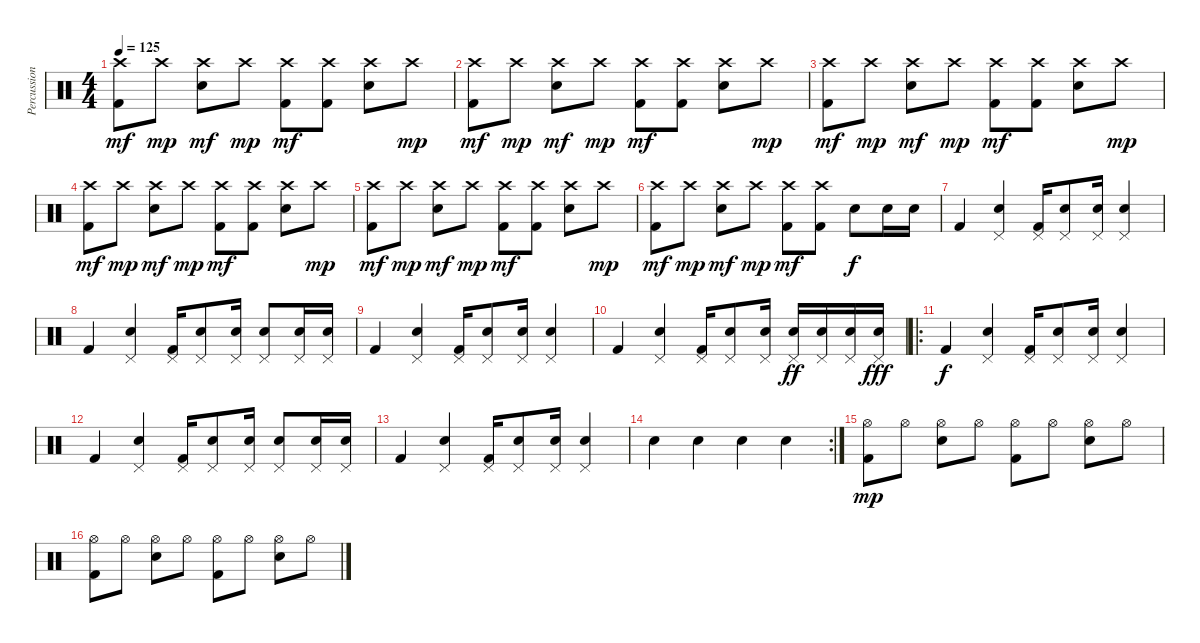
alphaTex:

\track ("Percussion" "Percussion") {instrument percussion}
\staff {score}
\articulation defaults
\ts (4 4)
\tempo 125
\clef neutral
\ks c
("Crash high (hit)" "Kick (hit) 2").8{dy mf} "Crash high (hit)".8{dy mp} ("Crash high (hit)" "Electric Snare (hit)").8{dy mf} "Crash high (hit)".8{dy mp} ("Crash high (hit)" "Kick (hit) 2").8{dy mf} ("Crash high (hit)" "Kick (hit) 2").8 ("Crash high (hit)" "Electric Snare (hit)").8 "Crash high (hit)".8{dy mp} |
("Crash high (hit)" "Kick (hit) 2").8{dy mf} "Crash high (hit)".8{dy mp} ("Crash high (hit)" "Electric Snare (hit)").8{dy mf} "Crash high (hit)".8{dy mp} ("Crash high (hit)" "Kick (hit) 2").8{dy mf} ("Crash high (hit)" "Kick (hit) 2").8 ("Crash high (hit)" "Electric Snare (hit)").8 "Crash high (hit)".8{dy mp} |
("Crash high (hit)" "Kick (hit) 2").8{dy mf} "Crash high (hit)".8{dy mp} ("Crash high (hit)" "Electric Snare (hit)").8{dy mf} "Crash high (hit)".8{dy mp} ("Crash high (hit)" "Kick (hit) 2").8{dy mf} ("Crash high (hit)" "Kick (hit) 2").8 ("Crash high (hit)" "Electric Snare (hit)").8 "Crash high (hit)".8{dy mp} |
("Crash high (hit)" "Kick (hit) 2").8{dy mf} "Crash high (hit)".8{dy mp} ("Crash high (hit)" "Electric Snare (hit)").8{dy mf} "Crash high (hit)".8{dy mp} ("Crash high (hit)" "Kick (hit) 2").8{dy mf} ("Crash high (hit)" "Kick (hit) 2").8 ("Crash high (hit)" "Electric Snare (hit)").8 "Crash high (hit)".8{dy mp} |
("Crash high (hit)" "Kick (hit) 2").8{dy mf} "Crash high (hit)".8{dy mp} ("Crash high (hit)" "Electric Snare (hit)").8{dy mf} "Crash high (hit)".8{dy mp} ("Crash high (hit)" "Kick (hit) 2").8{dy mf} ("Crash high (hit)" "Kick (hit) 2").8 ("Crash high (hit)" "Electric Snare (hit)").8 "Crash high (hit)".8{dy mp} |
("Crash high (hit)" "Kick (hit) 2").8{dy mf} "Crash high (hit)".8{dy mp} ("Crash high (hit)" "Electric Snare (hit)").8{dy mf} "Crash high (hit)".8{dy mp} ("Crash high (hit)" "Kick (hit) 2").8{dy mf} ("Crash high (hit)" "Kick (hit) 2").8 "Electric Snare (hit)".8{dy f} "Electric Snare (hit)".16 "Electric Snare (hit)".16 |
"Kick (hit) 2".4 ("Pedal Hi-Hat (hit)" "Electric Snare (hit)").4 ("Pedal Hi-Hat (hit)" "Kick (hit) 2").16 ("Pedal Hi-Hat (hit)" "Electric Snare (hit)").8 ("Pedal Hi-Hat (hit)" "Electric Snare (hit)").16 ("Pedal Hi-Hat (hit)" "Electric Snare (hit)").4 |
"Kick (hit) 2".4 ("Pedal Hi-Hat (hit)" "Electric Snare (hit)").4 ("Pedal Hi-Hat (hit)" "Kick (hit) 2").16 ("Pedal Hi-Hat (hit)" "Electric Snare (hit)").8 ("Pedal Hi-Hat (hit)" "Electric Snare (hit)").16 ("Pedal Hi-Hat (hit)" "Electric Snare (hit)").8 ("Pedal Hi-Hat (hit)" "Electric Snare (hit)").16 ("Pedal Hi-Hat (hit)" "Electric Snare (hit)").16 |
"Kick (hit) 2".4 ("Pedal Hi-Hat (hit)" "Electric Snare (hit)").4 ("Pedal Hi-Hat (hit)" "Kick (hit) 2").16 ("Pedal Hi-Hat (hit)" "Electric Snare (hit)").8 ("Pedal Hi-Hat (hit)" "Electric Snare (hit)").16 ("Pedal Hi-Hat (hit)" "Electric Snare (hit)").4 |
"Kick (hit) 2".4 ("Pedal Hi-Hat (hit)" "Electric Snare (hit)").4 ("Pedal Hi-Hat (hit)" "Kick (hit) 2").16 ("Pedal Hi-Hat (hit)" "Electric Snare (hit)").8 ("Pedal Hi-Hat (hit)" "Electric Snare (hit)").16 ("Pedal Hi-Hat (hit)" "Electric Snare (hit)").16{dy ff} ("Pedal Hi-Hat (hit)" "Electric Snare (hit)").16 ("Pedal Hi-Hat (hit)" "Electric Snare (hit)").16 ("Pedal Hi-Hat (hit)" "Electric Snare (hit)").16{dy fff} |
\ro "Kick (hit) 2".4{dy f}
("Pedal Hi-Hat (hit)" "Electric Snare (hit)").4 ("Pedal Hi-Hat (hit)" "Kick (hit) 2").16 ("Pedal Hi-Hat (hit)" "Electric Snare (hit)").8 ("Pedal Hi-Hat (hit)" "Electric Snare (hit)").16 ("Pedal Hi-Hat (hit)" "Electric Snare (hit)").4 |
"Kick (hit) 2".4 ("Pedal Hi-Hat (hit)" "Electric Snare (hit)").4 ("Pedal Hi-Hat (hit)" "Kick (hit) 2").16 ("Pedal Hi-Hat (hit)" "Electric Snare (hit)").8 ("Pedal Hi-Hat (hit)" "Electric Snare (hit)").16 ("Pedal Hi-Hat (hit)" "Electric Snare (hit)").8 ("Pedal Hi-Hat (hit)" "Electric Snare (hit)").16 ("Pedal Hi-Hat (hit)" "Electric Snare (hit)").16 |
"Kick (hit) 2".4 ("Pedal Hi-Hat (hit)" "Electric Snare (hit)").4 ("Pedal Hi-Hat (hit)" "Kick (hit) 2").16 ("Pedal Hi-Hat (hit)" "Electric Snare (hit)").8 ("Pedal Hi-Hat (hit)" "Electric Snare (hit)").16 ("Pedal Hi-Hat (hit)" "Electric Snare (hit)").4 |
\rc 2 "Electric Snare (hit)".4 "Electric Snare (hit)".4 "Electric Snare (hit)".4 "Electric Snare (hit)".4
|
("Hi-Hat (open)" "Kick (hit) 2").8{dy mp} "Hi-Hat (open)".8 ("Hi-Hat (open)" "Electric Snare (hit)").8 "Hi-Hat (open)".8 ("Hi-Hat (open)" "Kick (hit) 2").8 "Hi-Hat (open)".8 ("Hi-Hat (open)" "Electric Snare (hit)").8 "Hi-Hat (open)".8 |
("Hi-Hat (open)" "Kick (hit) 2").8 "Hi-Hat (open)".8 ("Hi-Hat (open)" "Electric Snare (hit)").8 "Hi-Hat (open)".8 ("Hi-Hat (open)" "Kick (hit) 2").8 "Hi-Hat (open)".8 ("Hi-Hat (open)" "Electric Snare (hit)").8 "Hi-Hat (open)".8
